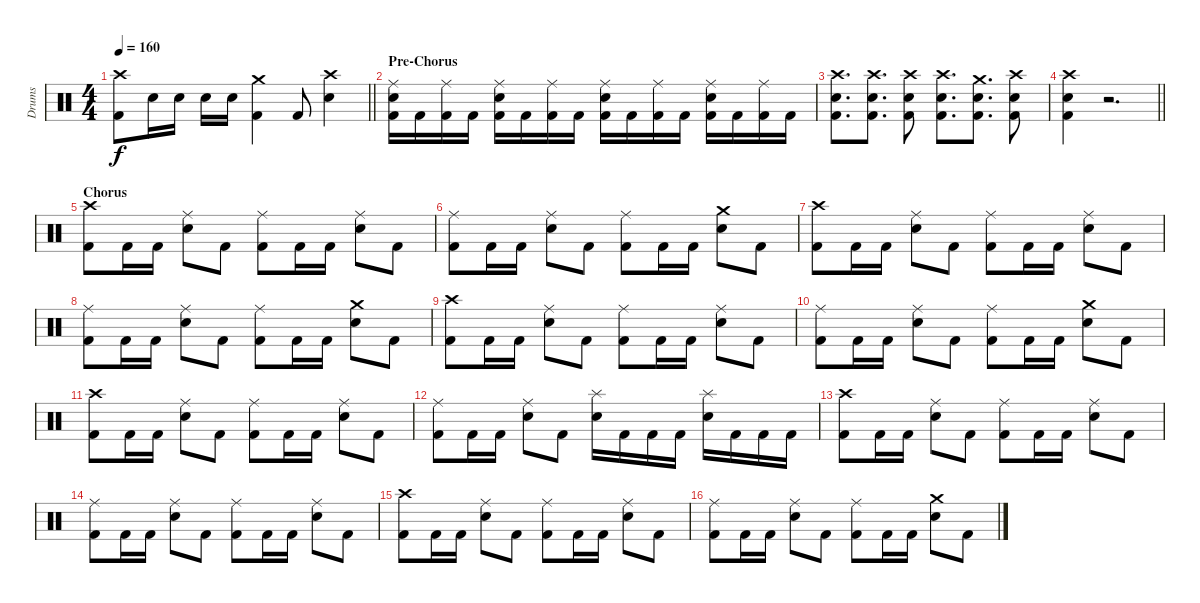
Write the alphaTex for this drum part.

\track ("Drums" "Drums") {instrument percussion}
\staff {score}
\articulation defaults
\ts (4 4)
\tempo 160
\clef neutral
\barLineRight lightlight
\ks c
("Crash high (hit)" "Kick (hit) 2").8{dy f} "Snare (hit) 2".16 "Snare (hit) 2".16 "Electric Snare (hit)".16 "Electric Snare (hit)".16 ("Crash medium (hit)" "Kick (hit) 2").4 "Kick (hit) 2".8 ("Crash high (hit)" "Snare (hit) 2").4 |
\section ("" "Pre-Chorus")
("Ride (middle)" "Snare (hit) 2" "Kick (hit) 2").16 "Kick (hit) 2".16 ("Ride (middle)" "Kick (hit) 2").16 "Kick (hit) 2".16 ("Ride (middle)" "Snare (hit) 2" "Kick (hit) 2").16 "Kick (hit) 2".16 ("Ride (middle)" "Kick (hit) 2").16 "Kick (hit) 2".16 ("Ride (middle)" "Snare (hit) 2" "Kick (hit) 2").16 "Kick (hit) 2".16 ("Ride (middle)" "Kick (hit) 2").16 "Kick (hit) 2".16 ("Ride (middle)" "Snare (hit) 2" "Kick (hit) 2").16 "Kick (hit) 2".16 ("Ride (middle)" "Kick (hit) 2").16 "Kick (hit) 2".16 |
("Crash high (hit)" "Snare (hit) 2" "Kick (hit) 2").8{d} ("Crash high (hit)" "Snare (hit) 2" "Kick (hit) 2").8{d} ("Crash high (hit)" "Snare (hit) 2" "Kick (hit) 2").8 ("Crash high (hit)" "Snare (hit) 2" "Kick (hit) 2").8{d} ("Crash medium (hit)" "Snare (hit) 2" "Kick (hit) 2").8{d} ("Crash high (hit)" "Snare (hit) 2" "Kick (hit) 2").8 |
\barLineRight lightlight
("Crash high (hit)" "Snare (hit) 2" "Kick (hit) 2").4 r.2{d} |
\section ("" "Chorus")
("Crash high (hit)" "Kick (hit) 2").8 "Kick (hit) 2".16 "Kick (hit) 2".16 ("Ride (middle)" "Snare (hit) 2").8 "Kick (hit) 2".8 ("Ride (middle)" "Kick (hit) 2").8 "Kick (hit) 2".16 "Kick (hit) 2".16 ("Ride (middle)" "Snare (hit) 2").8 "Kick (hit) 2".8 |
("Ride (middle)" "Kick (hit) 2").8 "Kick (hit) 2".16 "Kick (hit) 2".16 ("Ride (middle)" "Snare (hit) 2").8 "Kick (hit) 2".8 ("Ride (middle)" "Kick (hit) 2").8 "Kick (hit) 2".16 "Kick (hit) 2".16 ("Crash medium (hit)" "Snare (hit) 2").8 "Kick (hit) 2".8 |
("Crash high (hit)" "Kick (hit) 2").8 "Kick (hit) 2".16 "Kick (hit) 2".16 ("Ride (middle)" "Snare (hit) 2").8 "Kick (hit) 2".8 ("Ride (middle)" "Kick (hit) 2").8 "Kick (hit) 2".16 "Kick (hit) 2".16 ("Ride (middle)" "Snare (hit) 2").8 "Kick (hit) 2".8 |
("Ride (middle)" "Kick (hit) 2").8 "Kick (hit) 2".16 "Kick (hit) 2".16 ("Ride (middle)" "Snare (hit) 2").8 "Kick (hit) 2".8 ("Ride (middle)" "Kick (hit) 2").8 "Kick (hit) 2".16 "Kick (hit) 2".16 ("Crash medium (hit)" "Snare (hit) 2").8 "Kick (hit) 2".8 |
("Crash high (hit)" "Kick (hit) 2").8 "Kick (hit) 2".16 "Kick (hit) 2".16 ("Ride (middle)" "Snare (hit) 2").8 "Kick (hit) 2".8 ("Ride (middle)" "Kick (hit) 2").8 "Kick (hit) 2".16 "Kick (hit) 2".16 ("Ride (middle)" "Snare (hit) 2").8 "Kick (hit) 2".8 |
("Ride (middle)" "Kick (hit) 2").8 "Kick (hit) 2".16 "Kick (hit) 2".16 ("Ride (middle)" "Snare (hit) 2").8 "Kick (hit) 2".8 ("Ride (middle)" "Kick (hit) 2").8 "Kick (hit) 2".16 "Kick (hit) 2".16 ("Crash medium (hit)" "Snare (hit) 2").8 "Kick (hit) 2".8 |
("Crash high (hit)" "Kick (hit) 2").8 "Kick (hit) 2".16 "Kick (hit) 2".16 ("Ride (middle)" "Snare (hit) 2").8 "Kick (hit) 2".8 ("Ride (middle)" "Kick (hit) 2").8 "Kick (hit) 2".16 "Kick (hit) 2".16 ("Ride (middle)" "Snare (hit) 2").8 "Kick (hit) 2".8 |
("Ride (middle)" "Kick (hit) 2").8 "Kick (hit) 2".16 "Kick (hit) 2".16 ("Ride (middle)" "Snare (hit) 2").8 "Kick (hit) 2".8 ("Splash (hit)" "Snare (hit) 2").16 "Kick (hit) 2".16 "Kick (hit) 2".16 "Kick (hit) 2".16 ("Splash (hit)" "Snare (hit) 2").16 "Kick (hit) 2".16 "Kick (hit) 2".16 "Kick (hit) 2".16 |
("Crash high (hit)" "Kick (hit) 2").8 "Kick (hit) 2".16 "Kick (hit) 2".16 ("Ride (middle)" "Snare (hit) 2").8 "Kick (hit) 2".8 ("Ride (middle)" "Kick (hit) 2").8 "Kick (hit) 2".16 "Kick (hit) 2".16 ("Ride (middle)" "Snare (hit) 2").8 "Kick (hit) 2".8 |
("Ride (middle)" "Kick (hit) 2").8 "Kick (hit) 2".16 "Kick (hit) 2".16 ("Ride (middle)" "Snare (hit) 2").8 "Kick (hit) 2".8 ("Ride (middle)" "Kick (hit) 2").8 "Kick (hit) 2".16 "Kick (hit) 2".16 ("Ride (middle)" "Snare (hit) 2").8 "Kick (hit) 2".8 |
("Crash high (hit)" "Kick (hit) 2").8 "Kick (hit) 2".16 "Kick (hit) 2".16 ("Ride (middle)" "Snare (hit) 2").8 "Kick (hit) 2".8 ("Ride (middle)" "Kick (hit) 2").8 "Kick (hit) 2".16 "Kick (hit) 2".16 ("Ride (middle)" "Snare (hit) 2").8 "Kick (hit) 2".8 |
("Ride (middle)" "Kick (hit) 2").8 "Kick (hit) 2".16 "Kick (hit) 2".16 ("Ride (middle)" "Snare (hit) 2").8 "Kick (hit) 2".8 ("Ride (middle)" "Kick (hit) 2").8 "Kick (hit) 2".16 "Kick (hit) 2".16 ("Crash medium (hit)" "Snare (hit) 2").8 "Kick (hit) 2".8
